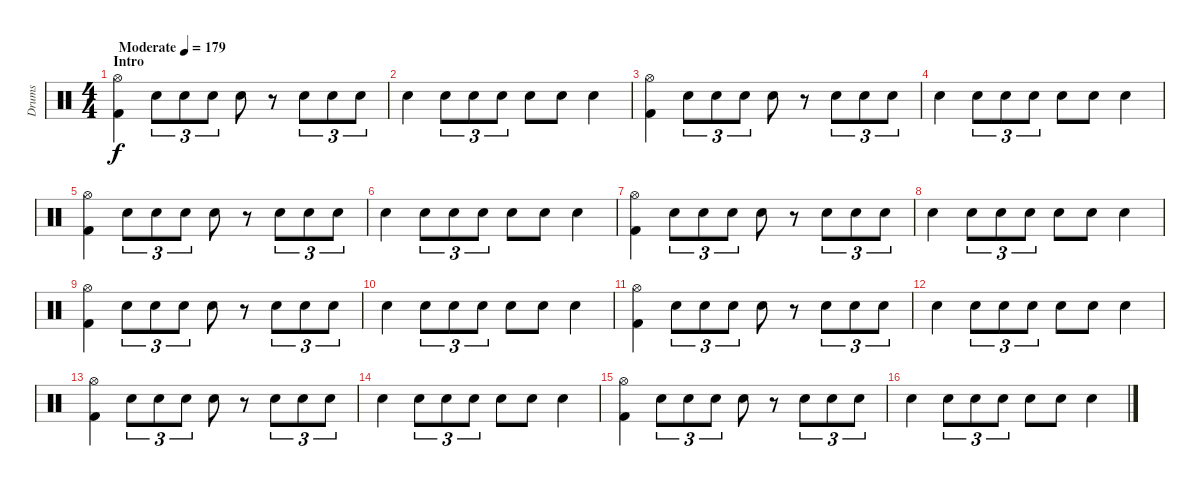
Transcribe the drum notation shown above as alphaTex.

\track ("Drums" "Drums") {instrument percussion}
\staff {score}
\articulation defaults
\ts (4 4)
\section ("" "Intro")
\tempo (179 "Moderate")
\clef neutral
\ks c
("Hi-Hat (open)" "Kick (hit) 2").4{dy f} "Snare (hit) 2".8{tu (3 2)} "Snare (hit) 2".8{tu (3 2)} "Snare (hit) 2".8{tu (3 2)} "Snare (hit) 2".8 r.8 "Snare (hit) 2".8{tu (3 2)} "Snare (hit) 2".8{tu (3 2)} "Snare (hit) 2".8{tu (3 2)} |
"Snare (hit) 2".4 "Snare (hit) 2".8{tu (3 2)} "Snare (hit) 2".8{tu (3 2)} "Snare (hit) 2".8{tu (3 2)} "Snare (hit) 2".8 "Snare (hit) 2".8 "Snare (hit) 2".4 |
("Hi-Hat (open)" "Kick (hit) 2").4 "Snare (hit) 2".8{tu (3 2)} "Snare (hit) 2".8{tu (3 2)} "Snare (hit) 2".8{tu (3 2)} "Snare (hit) 2".8 r.8 "Snare (hit) 2".8{tu (3 2)} "Snare (hit) 2".8{tu (3 2)} "Snare (hit) 2".8{tu (3 2)} |
"Snare (hit) 2".4 "Snare (hit) 2".8{tu (3 2)} "Snare (hit) 2".8{tu (3 2)} "Snare (hit) 2".8{tu (3 2)} "Snare (hit) 2".8 "Snare (hit) 2".8 "Snare (hit) 2".4 |
("Hi-Hat (open)" "Kick (hit) 2").4 "Snare (hit) 2".8{tu (3 2)} "Snare (hit) 2".8{tu (3 2)} "Snare (hit) 2".8{tu (3 2)} "Snare (hit) 2".8 r.8 "Snare (hit) 2".8{tu (3 2)} "Snare (hit) 2".8{tu (3 2)} "Snare (hit) 2".8{tu (3 2)} |
"Snare (hit) 2".4 "Snare (hit) 2".8{tu (3 2)} "Snare (hit) 2".8{tu (3 2)} "Snare (hit) 2".8{tu (3 2)} "Snare (hit) 2".8 "Snare (hit) 2".8 "Snare (hit) 2".4 |
("Hi-Hat (open)" "Kick (hit) 2").4 "Snare (hit) 2".8{tu (3 2)} "Snare (hit) 2".8{tu (3 2)} "Snare (hit) 2".8{tu (3 2)} "Snare (hit) 2".8 r.8 "Snare (hit) 2".8{tu (3 2)} "Snare (hit) 2".8{tu (3 2)} "Snare (hit) 2".8{tu (3 2)} |
"Snare (hit) 2".4 "Snare (hit) 2".8{tu (3 2)} "Snare (hit) 2".8{tu (3 2)} "Snare (hit) 2".8{tu (3 2)} "Snare (hit) 2".8 "Snare (hit) 2".8 "Snare (hit) 2".4 |
("Hi-Hat (open)" "Kick (hit) 2").4 "Snare (hit) 2".8{tu (3 2)} "Snare (hit) 2".8{tu (3 2)} "Snare (hit) 2".8{tu (3 2)} "Snare (hit) 2".8 r.8 "Snare (hit) 2".8{tu (3 2)} "Snare (hit) 2".8{tu (3 2)} "Snare (hit) 2".8{tu (3 2)} |
"Snare (hit) 2".4 "Snare (hit) 2".8{tu (3 2)} "Snare (hit) 2".8{tu (3 2)} "Snare (hit) 2".8{tu (3 2)} "Snare (hit) 2".8 "Snare (hit) 2".8 "Snare (hit) 2".4 |
("Hi-Hat (open)" "Kick (hit) 2").4 "Snare (hit) 2".8{tu (3 2)} "Snare (hit) 2".8{tu (3 2)} "Snare (hit) 2".8{tu (3 2)} "Snare (hit) 2".8 r.8 "Snare (hit) 2".8{tu (3 2)} "Snare (hit) 2".8{tu (3 2)} "Snare (hit) 2".8{tu (3 2)} |
"Snare (hit) 2".4 "Snare (hit) 2".8{tu (3 2)} "Snare (hit) 2".8{tu (3 2)} "Snare (hit) 2".8{tu (3 2)} "Snare (hit) 2".8 "Snare (hit) 2".8 "Snare (hit) 2".4 |
("Hi-Hat (open)" "Kick (hit) 2").4 "Snare (hit) 2".8{tu (3 2)} "Snare (hit) 2".8{tu (3 2)} "Snare (hit) 2".8{tu (3 2)} "Snare (hit) 2".8 r.8 "Snare (hit) 2".8{tu (3 2)} "Snare (hit) 2".8{tu (3 2)} "Snare (hit) 2".8{tu (3 2)} |
"Snare (hit) 2".4 "Snare (hit) 2".8{tu (3 2)} "Snare (hit) 2".8{tu (3 2)} "Snare (hit) 2".8{tu (3 2)} "Snare (hit) 2".8 "Snare (hit) 2".8 "Snare (hit) 2".4 |
("Hi-Hat (open)" "Kick (hit) 2").4 "Snare (hit) 2".8{tu (3 2)} "Snare (hit) 2".8{tu (3 2)} "Snare (hit) 2".8{tu (3 2)} "Snare (hit) 2".8 r.8 "Snare (hit) 2".8{tu (3 2)} "Snare (hit) 2".8{tu (3 2)} "Snare (hit) 2".8{tu (3 2)} |
"Snare (hit) 2".4 "Snare (hit) 2".8{tu (3 2)} "Snare (hit) 2".8{tu (3 2)} "Snare (hit) 2".8{tu (3 2)} "Snare (hit) 2".8 "Snare (hit) 2".8 "Snare (hit) 2".4
